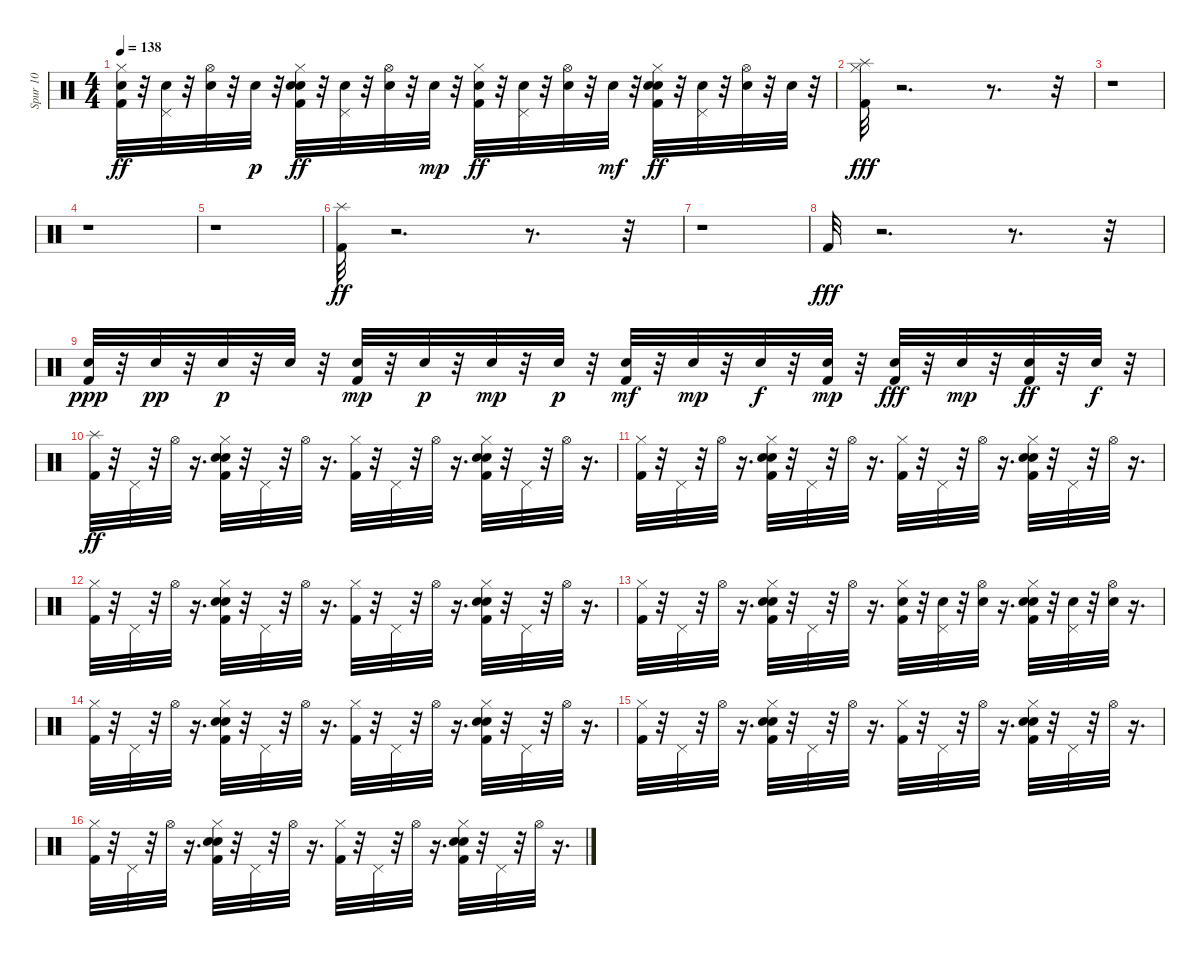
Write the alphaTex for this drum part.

\track ("Spur 10" "Spur 10") {instrument percussion}
\staff {score}
\articulation defaults
\ts (4 4)
\tempo 138
\clef neutral
\ks c
("Kick (hit) 2" "Snare (hit) 2" "Hi-Hat (closed)").32{dy ff} r.32 ("Snare (hit) 2" "Pedal Hi-Hat (hit)").32 r.32 ("Snare (hit) 2" "Hi-Hat (open)").32 r.32 "Snare (hit) 2".32{dy p} r.32 ("Kick (hit) 2" "Snare (hit) 2" "Hand Clap (hit)" "Hi-Hat (closed)").32{dy ff} r.32 ("Snare (hit) 2" "Pedal Hi-Hat (hit)").32 r.32 ("Snare (hit) 2" "Hi-Hat (open)").32 r.32 "Snare (hit) 2".32{dy mp} r.32 ("Kick (hit) 2" "Snare (hit) 2" "Hi-Hat (closed)").32{dy ff} r.32 ("Snare (hit) 2" "Pedal Hi-Hat (hit)").32 r.32 ("Snare (hit) 2" "Hi-Hat (open)").32 r.32 "Snare (hit) 2".32{dy mf} r.32 ("Kick (hit) 2" "Snare (hit) 2" "Hand Clap (hit)" "Hi-Hat (closed)").32{dy ff} r.32 ("Snare (hit) 2" "Pedal Hi-Hat (hit)").32 r.32 ("Snare (hit) 2" "Hi-Hat (open)").32 r.32 "Snare (hit) 2".32 r.32 |
("Kick (hit) 2" "Hi-Hat (closed)" "Splash (hit)").32{dy fff} r.2{d} r.8{d} r.32 |
r.1 |
r.1 |
r.1 |
("Kick (hit) 2" "Splash (hit)").32{dy ff} r.2{d} r.8{d} r.32 |
r.1 |
"Kick (hit) 2".32{dy fff} r.2{d} r.8{d} r.32 |
("Kick (hit) 2" "Snare (hit) 2").32{dy ppp} r.32 "Snare (hit) 2".32{dy pp} r.32 "Snare (hit) 2".32{dy p} r.32 "Snare (hit) 2".32 r.32 ("Kick (hit) 2" "Snare (hit) 2").32{dy mp} r.32 "Snare (hit) 2".32{dy p} r.32 "Snare (hit) 2".32{dy mp} r.32 "Snare (hit) 2".32{dy p} r.32 ("Kick (hit) 2" "Snare (hit) 2").32{dy mf} r.32 "Snare (hit) 2".32{dy mp} r.32 "Snare (hit) 2".32{dy f} r.32 ("Kick (hit) 2" "Snare (hit) 2").32{dy mp} r.32 ("Kick (hit) 2" "Snare (hit) 2").32{dy fff} r.32 "Snare (hit) 2".32{dy mp} r.32 ("Kick (hit) 2" "Snare (hit) 2").32{dy ff} r.32 "Snare (hit) 2".32{dy f} r.32 |
("Kick (hit) 2" "Splash (hit)").32{dy ff} r.32 "Pedal Hi-Hat (hit)".32 r.32 "Hi-Hat (open)".32 r.16{d} ("Kick (hit) 2" "Snare (hit) 2" "Hand Clap (hit)" "Hi-Hat (closed)").32 r.32 "Pedal Hi-Hat (hit)".32 r.32 "Hi-Hat (open)".32 r.16{d} ("Kick (hit) 2" "Hi-Hat (closed)").32 r.32 "Pedal Hi-Hat (hit)".32 r.32 "Hi-Hat (open)".32 r.16{d} ("Kick (hit) 2" "Snare (hit) 2" "Hand Clap (hit)" "Hi-Hat (closed)").32 r.32 "Pedal Hi-Hat (hit)".32 r.32 "Hi-Hat (open)".32 r.16{d} |
("Kick (hit) 2" "Hi-Hat (closed)").32 r.32 "Pedal Hi-Hat (hit)".32 r.32 "Hi-Hat (open)".32 r.16{d} ("Kick (hit) 2" "Snare (hit) 2" "Hand Clap (hit)" "Hi-Hat (closed)").32 r.32 "Pedal Hi-Hat (hit)".32 r.32 "Hi-Hat (open)".32 r.16{d} ("Kick (hit) 2" "Hi-Hat (closed)").32 r.32 "Pedal Hi-Hat (hit)".32 r.32 "Hi-Hat (open)".32 r.16{d} ("Kick (hit) 2" "Snare (hit) 2" "Hand Clap (hit)" "Hi-Hat (closed)").32 r.32 "Pedal Hi-Hat (hit)".32 r.32 "Hi-Hat (open)".32 r.16{d} |
("Kick (hit) 2" "Hi-Hat (closed)").32 r.32 "Pedal Hi-Hat (hit)".32 r.32 "Hi-Hat (open)".32 r.16{d} ("Kick (hit) 2" "Snare (hit) 2" "Hand Clap (hit)" "Hi-Hat (closed)").32 r.32 "Pedal Hi-Hat (hit)".32 r.32 "Hi-Hat (open)".32 r.16{d} ("Kick (hit) 2" "Hi-Hat (closed)").32 r.32 "Pedal Hi-Hat (hit)".32 r.32 "Hi-Hat (open)".32 r.16{d} ("Kick (hit) 2" "Snare (hit) 2" "Hand Clap (hit)" "Hi-Hat (closed)").32 r.32 "Pedal Hi-Hat (hit)".32 r.32 "Hi-Hat (open)".32 r.16{d} |
("Kick (hit) 2" "Hi-Hat (closed)").32 r.32 "Pedal Hi-Hat (hit)".32 r.32 "Hi-Hat (open)".32 r.16{d} ("Kick (hit) 2" "Snare (hit) 2" "Hand Clap (hit)" "Hi-Hat (closed)").32 r.32 "Pedal Hi-Hat (hit)".32 r.32 "Hi-Hat (open)".32 r.16{d} ("Kick (hit) 2" "Snare (hit) 2" "Hi-Hat (closed)").32 r.32 ("Snare (hit) 2" "Pedal Hi-Hat (hit)").32 r.32 ("Snare (hit) 2" "Hi-Hat (open)").32 r.16{d} ("Kick (hit) 2" "Snare (hit) 2" "Hand Clap (hit)" "Hi-Hat (closed)").32 r.32 ("Snare (hit) 2" "Pedal Hi-Hat (hit)").32 r.32 ("Snare (hit) 2" "Hi-Hat (open)").32 r.16{d} |
("Kick (hit) 2" "Hi-Hat (closed)").32 r.32 "Pedal Hi-Hat (hit)".32 r.32 "Hi-Hat (open)".32 r.16{d} ("Kick (hit) 2" "Snare (hit) 2" "Hand Clap (hit)" "Hi-Hat (closed)").32 r.32 "Pedal Hi-Hat (hit)".32 r.32 "Hi-Hat (open)".32 r.16{d} ("Kick (hit) 2" "Hi-Hat (closed)").32 r.32 "Pedal Hi-Hat (hit)".32 r.32 "Hi-Hat (open)".32 r.16{d} ("Kick (hit) 2" "Snare (hit) 2" "Hand Clap (hit)" "Hi-Hat (closed)").32 r.32 "Pedal Hi-Hat (hit)".32 r.32 "Hi-Hat (open)".32 r.16{d} |
("Kick (hit) 2" "Hi-Hat (closed)").32 r.32 "Pedal Hi-Hat (hit)".32 r.32 "Hi-Hat (open)".32 r.16{d} ("Kick (hit) 2" "Snare (hit) 2" "Hand Clap (hit)" "Hi-Hat (closed)").32 r.32 "Pedal Hi-Hat (hit)".32 r.32 "Hi-Hat (open)".32 r.16{d} ("Kick (hit) 2" "Hi-Hat (closed)").32 r.32 "Pedal Hi-Hat (hit)".32 r.32 "Hi-Hat (open)".32 r.16{d} ("Kick (hit) 2" "Snare (hit) 2" "Hand Clap (hit)" "Hi-Hat (closed)").32 r.32 "Pedal Hi-Hat (hit)".32 r.32 "Hi-Hat (open)".32 r.16{d} |
("Kick (hit) 2" "Hi-Hat (closed)").32 r.32 "Pedal Hi-Hat (hit)".32 r.32 "Hi-Hat (open)".32 r.16{d} ("Kick (hit) 2" "Snare (hit) 2" "Hand Clap (hit)" "Hi-Hat (closed)").32 r.32 "Pedal Hi-Hat (hit)".32 r.32 "Hi-Hat (open)".32 r.16{d} ("Kick (hit) 2" "Hi-Hat (closed)").32 r.32 "Pedal Hi-Hat (hit)".32 r.32 "Hi-Hat (open)".32 r.16{d} ("Kick (hit) 2" "Snare (hit) 2" "Hand Clap (hit)" "Hi-Hat (closed)").32 r.32 "Pedal Hi-Hat (hit)".32 r.32 "Hi-Hat (open)".32 r.16{d}
